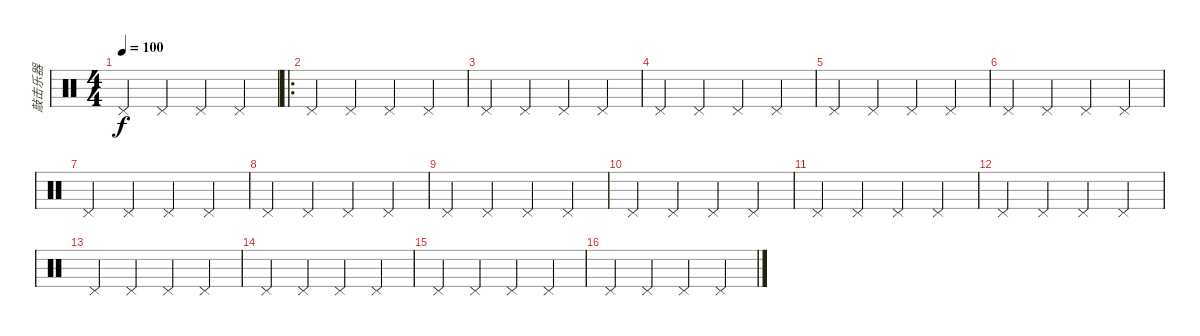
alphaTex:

\track ("敲击乐器" "敲击乐器") {instrument percussion}
\staff {score}
\articulation defaults
\ts (4 4)
\tempo 100
\clef neutral
\ks c "Pedal Hi-Hat (hit)".4{dy f} "Pedal Hi-Hat (hit)".4 "Pedal Hi-Hat (hit)".4 "Pedal Hi-Hat (hit)".4
|
\ro "Pedal Hi-Hat (hit)".4 "Pedal Hi-Hat (hit)".4 "Pedal Hi-Hat (hit)".4 "Pedal Hi-Hat (hit)".4
|
"Pedal Hi-Hat (hit)".4 "Pedal Hi-Hat (hit)".4 "Pedal Hi-Hat (hit)".4 "Pedal Hi-Hat (hit)".4 |
"Pedal Hi-Hat (hit)".4 "Pedal Hi-Hat (hit)".4 "Pedal Hi-Hat (hit)".4 "Pedal Hi-Hat (hit)".4 |
"Pedal Hi-Hat (hit)".4 "Pedal Hi-Hat (hit)".4 "Pedal Hi-Hat (hit)".4 "Pedal Hi-Hat (hit)".4 |
"Pedal Hi-Hat (hit)".4 "Pedal Hi-Hat (hit)".4 "Pedal Hi-Hat (hit)".4 "Pedal Hi-Hat (hit)".4 |
"Pedal Hi-Hat (hit)".4 "Pedal Hi-Hat (hit)".4 "Pedal Hi-Hat (hit)".4 "Pedal Hi-Hat (hit)".4 |
"Pedal Hi-Hat (hit)".4 "Pedal Hi-Hat (hit)".4 "Pedal Hi-Hat (hit)".4 "Pedal Hi-Hat (hit)".4 |
"Pedal Hi-Hat (hit)".4 "Pedal Hi-Hat (hit)".4 "Pedal Hi-Hat (hit)".4 "Pedal Hi-Hat (hit)".4 |
"Pedal Hi-Hat (hit)".4 "Pedal Hi-Hat (hit)".4 "Pedal Hi-Hat (hit)".4 "Pedal Hi-Hat (hit)".4 |
"Pedal Hi-Hat (hit)".4 "Pedal Hi-Hat (hit)".4 "Pedal Hi-Hat (hit)".4 "Pedal Hi-Hat (hit)".4 |
"Pedal Hi-Hat (hit)".4 "Pedal Hi-Hat (hit)".4 "Pedal Hi-Hat (hit)".4 "Pedal Hi-Hat (hit)".4 |
"Pedal Hi-Hat (hit)".4 "Pedal Hi-Hat (hit)".4 "Pedal Hi-Hat (hit)".4 "Pedal Hi-Hat (hit)".4 |
"Pedal Hi-Hat (hit)".4 "Pedal Hi-Hat (hit)".4 "Pedal Hi-Hat (hit)".4 "Pedal Hi-Hat (hit)".4 |
"Pedal Hi-Hat (hit)".4 "Pedal Hi-Hat (hit)".4 "Pedal Hi-Hat (hit)".4 "Pedal Hi-Hat (hit)".4 |
"Pedal Hi-Hat (hit)".4 "Pedal Hi-Hat (hit)".4 "Pedal Hi-Hat (hit)".4 "Pedal Hi-Hat (hit)".4
